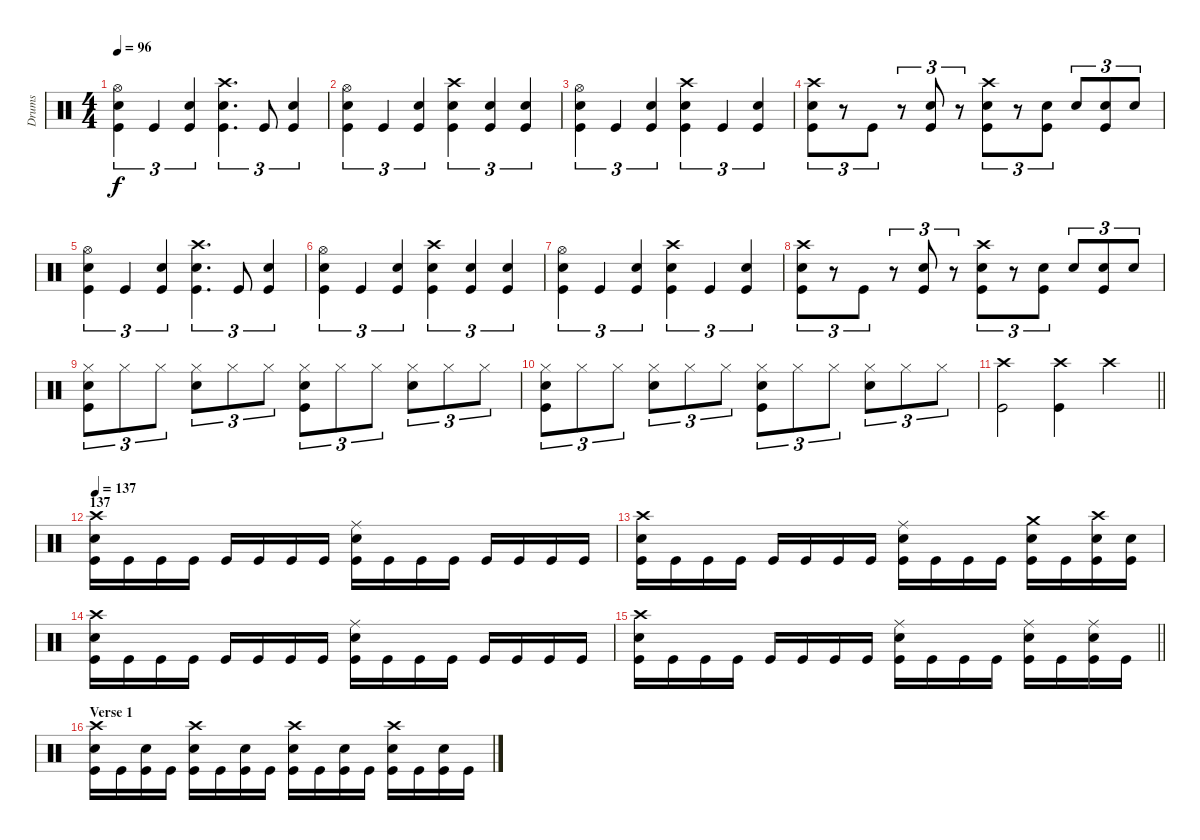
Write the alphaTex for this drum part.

\track ("Drums" "Drums") {instrument percussion}
\staff {score}
\articulation defaults
\ts (4 4)
\tempo 96
\clef neutral
\ks c
("Hi-Hat (open)" "Snare (hit) 2" "Kick (hit)").4{tu (3 2) dy f} "Kick (hit)".4{tu (3 2)} ("Snare (hit) 2" "Kick (hit)").4{tu (3 2)} ("Crash high (hit)" "Snare (hit) 2" "Kick (hit)").4{d tu (3 2)} "Kick (hit)".8{tu (3 2)} ("Snare (hit) 2" "Kick (hit)").4{tu (3 2)} |
("Hi-Hat (open)" "Snare (hit) 2" "Kick (hit)").4{tu (3 2)} "Kick (hit)".4{tu (3 2)} ("Snare (hit) 2" "Kick (hit)").4{tu (3 2)} ("Crash high (hit)" "Snare (hit) 2" "Kick (hit)").4{tu (3 2)} ("Snare (hit) 2" "Kick (hit)").4{tu (3 2)} ("Snare (hit) 2" "Kick (hit)").4{tu (3 2)} |
("Hi-Hat (open)" "Snare (hit) 2" "Kick (hit)").4{tu (3 2)} "Kick (hit)".4{tu (3 2)} ("Snare (hit) 2" "Kick (hit)").4{tu (3 2)} ("Crash high (hit)" "Snare (hit) 2" "Kick (hit)").4{tu (3 2)} "Kick (hit)".4{tu (3 2)} ("Snare (hit) 2" "Kick (hit)").4{tu (3 2)} |
("Crash high (hit)" "Snare (hit) 2" "Kick (hit)").8{tu (3 2)} r.8{tu (3 2)} "Kick (hit)".8{tu (3 2)} r.8{tu (3 2)} ("Snare (hit) 2" "Kick (hit)").8{tu (3 2)} r.8{tu (3 2)} ("Crash high (hit)" "Snare (hit) 2" "Kick (hit)").8{tu (3 2)} r.8{tu (3 2)} ("Snare (hit) 2" "Kick (hit)").8{tu (3 2)} "Snare (hit) 2".8{tu (3 2)} ("Snare (hit) 2" "Kick (hit)").8{tu (3 2)} "Snare (hit) 2".8{tu (3 2)} |
("Hi-Hat (open)" "Snare (hit) 2" "Kick (hit)").4{tu (3 2)} "Kick (hit)".4{tu (3 2)} ("Snare (hit) 2" "Kick (hit)").4{tu (3 2)} ("Crash high (hit)" "Snare (hit) 2" "Kick (hit)").4{d tu (3 2)} "Kick (hit)".8{tu (3 2)} ("Snare (hit) 2" "Kick (hit)").4{tu (3 2)} |
("Hi-Hat (open)" "Snare (hit) 2" "Kick (hit)").4{tu (3 2)} "Kick (hit)".4{tu (3 2)} ("Snare (hit) 2" "Kick (hit)").4{tu (3 2)} ("Crash high (hit)" "Snare (hit) 2" "Kick (hit)").4{tu (3 2)} ("Snare (hit) 2" "Kick (hit)").4{tu (3 2)} ("Snare (hit) 2" "Kick (hit)").4{tu (3 2)} |
("Hi-Hat (open)" "Snare (hit) 2" "Kick (hit)").4{tu (3 2)} "Kick (hit)".4{tu (3 2)} ("Snare (hit) 2" "Kick (hit)").4{tu (3 2)} ("Crash high (hit)" "Snare (hit) 2" "Kick (hit)").4{tu (3 2)} "Kick (hit)".4{tu (3 2)} ("Snare (hit) 2" "Kick (hit)").4{tu (3 2)} |
("Crash high (hit)" "Snare (hit) 2" "Kick (hit)").8{tu (3 2)} r.8{tu (3 2)} "Kick (hit)".8{tu (3 2)} r.8{tu (3 2)} ("Snare (hit) 2" "Kick (hit)").8{tu (3 2)} r.8{tu (3 2)} ("Crash high (hit)" "Snare (hit) 2" "Kick (hit)").8{tu (3 2)} r.8{tu (3 2)} ("Snare (hit) 2" "Kick (hit)").8{tu (3 2)} "Snare (hit) 2".8{tu (3 2)} ("Snare (hit) 2" "Kick (hit)").8{tu (3 2)} "Snare (hit) 2".8{tu (3 2)} |
("Hi-Hat (closed)" "Snare (hit) 2" "Kick (hit)").8{tu (3 2)} "Hi-Hat (closed)".8{tu (3 2)} "Hi-Hat (closed)".8{tu (3 2)} ("Hi-Hat (closed)" "Snare (hit) 2").8{tu (3 2)} "Hi-Hat (closed)".8{tu (3 2)} "Hi-Hat (closed)".8{tu (3 2)} ("Hi-Hat (closed)" "Snare (hit) 2" "Kick (hit)").8{tu (3 2)} "Hi-Hat (closed)".8{tu (3 2)} "Hi-Hat (closed)".8{tu (3 2)} ("Hi-Hat (closed)" "Snare (hit) 2").8{tu (3 2)} "Hi-Hat (closed)".8{tu (3 2)} "Hi-Hat (closed)".8{tu (3 2)} |
("Hi-Hat (closed)" "Snare (hit) 2" "Kick (hit)").8{tu (3 2)} "Hi-Hat (closed)".8{tu (3 2)} "Hi-Hat (closed)".8{tu (3 2)} ("Hi-Hat (closed)" "Snare (hit) 2").8{tu (3 2)} "Hi-Hat (closed)".8{tu (3 2)} "Hi-Hat (closed)".8{tu (3 2)} ("Hi-Hat (closed)" "Snare (hit) 2" "Kick (hit)").8{tu (3 2)} "Hi-Hat (closed)".8{tu (3 2)} "Hi-Hat (closed)".8{tu (3 2)} ("Hi-Hat (closed)" "Snare (hit) 2").8{tu (3 2)} "Hi-Hat (closed)".8{tu (3 2)} "Hi-Hat (closed)".8{tu (3 2)} |
\barLineRight lightlight
("Crash high (hit)" "Kick (hit)").2 ("Crash high (hit)" "Kick (hit)").4 "Crash high (hit)".4 |
\section ("" "137")
\tempo 137
("Crash high (hit)" "Snare (hit) 2" "Kick (hit)").16 "Kick (hit)".16 "Kick (hit)".16 "Kick (hit)".16 "Kick (hit)".16 "Kick (hit)".16 "Kick (hit)".16 "Kick (hit)".16 ("Ride (middle)" "Snare (hit) 2" "Kick (hit)").16 "Kick (hit)".16 "Kick (hit)".16 "Kick (hit)".16 "Kick (hit)".16 "Kick (hit)".16 "Kick (hit)".16 "Kick (hit)".16 |
("Crash high (hit)" "Snare (hit) 2" "Kick (hit)").16 "Kick (hit)".16 "Kick (hit)".16 "Kick (hit)".16 "Kick (hit)".16 "Kick (hit)".16 "Kick (hit)".16 "Kick (hit)".16 ("Ride (middle)" "Snare (hit) 2" "Kick (hit)").16 "Kick (hit)".16 "Kick (hit)".16 "Kick (hit)".16 ("Crash medium (hit)" "Snare (hit) 2" "Kick (hit)").16 "Kick (hit)".16 ("Crash high (hit)" "Snare (hit) 2" "Kick (hit)").16 ("Snare (hit) 2" "Kick (hit)").16 |
("Crash high (hit)" "Snare (hit) 2" "Kick (hit)").16 "Kick (hit)".16 "Kick (hit)".16 "Kick (hit)".16 "Kick (hit)".16 "Kick (hit)".16 "Kick (hit)".16 "Kick (hit)".16 ("Ride (middle)" "Snare (hit) 2" "Kick (hit)").16 "Kick (hit)".16 "Kick (hit)".16 "Kick (hit)".16 "Kick (hit)".16 "Kick (hit)".16 "Kick (hit)".16 "Kick (hit)".16 |
\barLineRight lightlight
("Crash high (hit)" "Snare (hit) 2" "Kick (hit)").16 "Kick (hit)".16 "Kick (hit)".16 "Kick (hit)".16 "Kick (hit)".16 "Kick (hit)".16 "Kick (hit)".16 "Kick (hit)".16 ("Ride (middle)" "Snare (hit) 2" "Kick (hit)").16 "Kick (hit)".16 "Kick (hit)".16 "Kick (hit)".16 ("Ride (middle)" "Snare (hit) 2" "Kick (hit)").16 "Kick (hit)".16 ("Ride (middle)" "Snare (hit) 2" "Kick (hit)").16 "Kick (hit)".16 |
\section ("" "Verse 1")
("Crash high (hit)" "Snare (hit) 2" "Kick (hit)").16 "Kick (hit)".16 ("Snare (hit) 2" "Kick (hit)").16 "Kick (hit)".16 ("Crash high (hit)" "Snare (hit) 2" "Kick (hit)").16 "Kick (hit)".16 ("Snare (hit) 2" "Kick (hit)").16 "Kick (hit)".16 ("Crash high (hit)" "Snare (hit) 2" "Kick (hit)").16 "Kick (hit)".16 ("Snare (hit) 2" "Kick (hit)").16 "Kick (hit)".16 ("Crash high (hit)" "Snare (hit) 2" "Kick (hit)").16 "Kick (hit)".16 ("Snare (hit) 2" "Kick (hit)").16 "Kick (hit)".16
